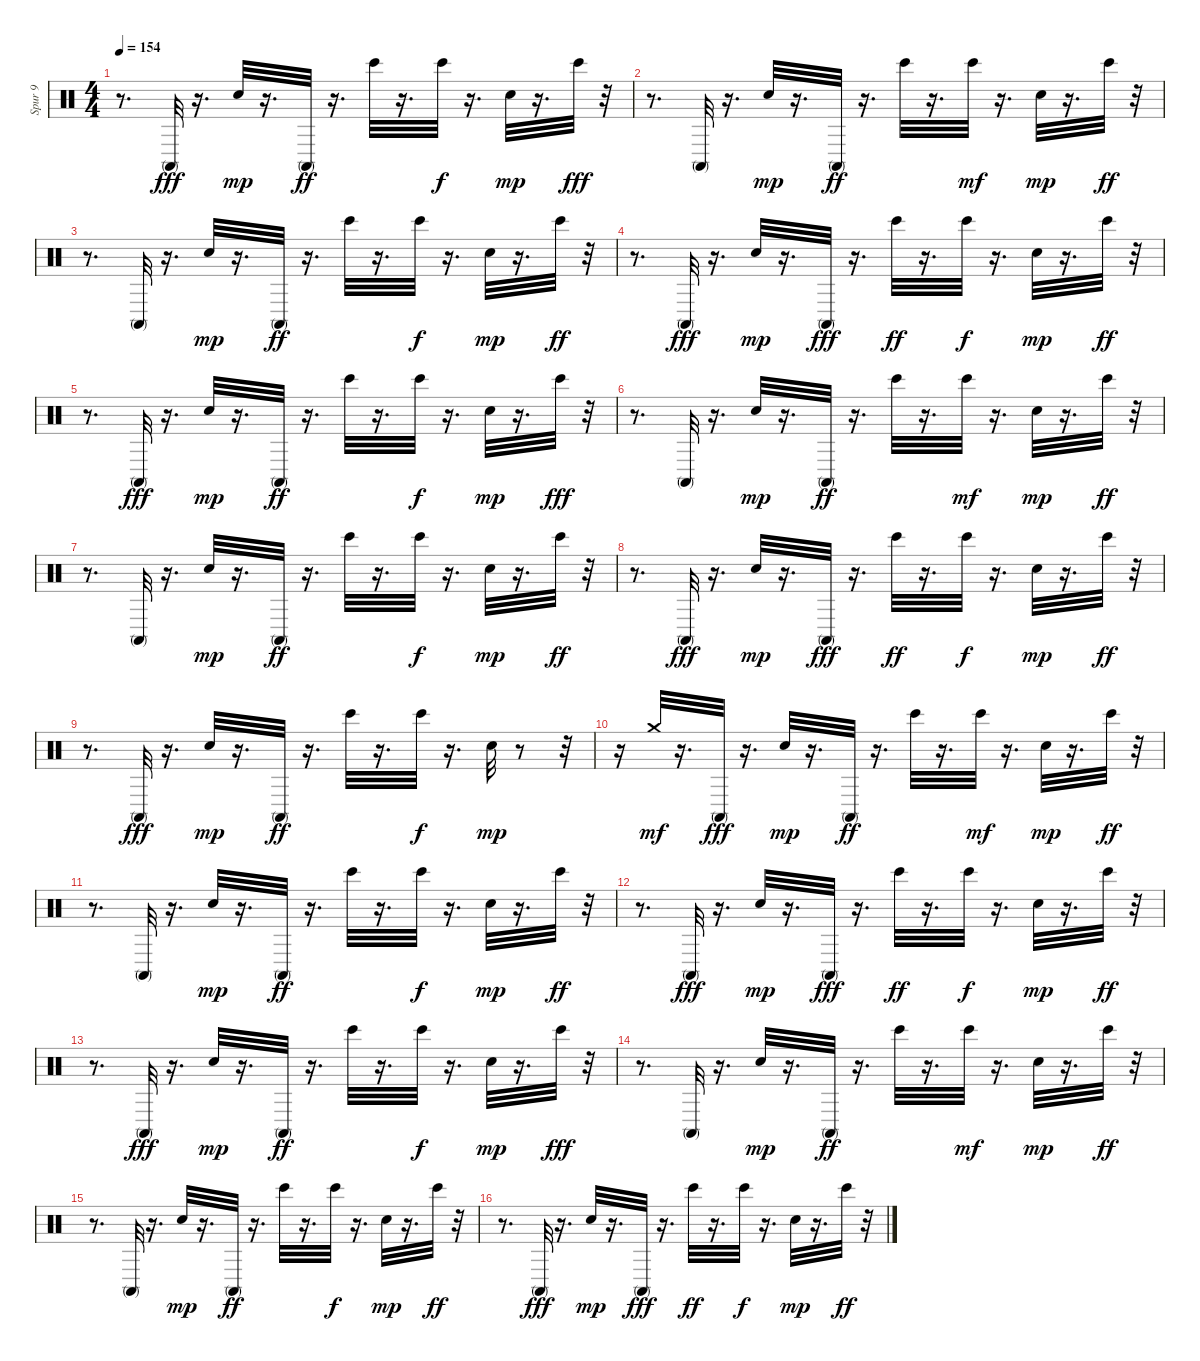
\track ("Spur 9" "Spur 9") {instrument percussion}
\staff {score}
\articulation defaults
\ts (4 4)
\tempo 154
\clef neutral
\ks c
r.8{d dy ff} "Conga high (mute)".32{dy fff} r.16{d} "Hand Clap (hit)".32{dy mp} r.16{d} "Conga high (mute)".32{dy ff} r.16{d} "Bongo High (hit)".32 r.16{d} "Bongo High (hit)".32{dy f} r.16{d} "Hand Clap (hit)".32{dy mp} r.16{d} "Bongo High (hit)".32{dy fff} r.32 |
r.8{d} "Conga high (mute)".32 r.16{d} "Hand Clap (hit)".32{dy mp} r.16{d} "Conga high (mute)".32{dy ff} r.16{d} "Bongo High (hit)".32 r.16{d} "Bongo High (hit)".32{dy mf} r.16{d} "Hand Clap (hit)".32{dy mp} r.16{d} "Bongo High (hit)".32{dy ff} r.32 |
r.8{d} "Conga high (mute)".32 r.16{d} "Hand Clap (hit)".32{dy mp} r.16{d} "Conga high (mute)".32{dy ff} r.16{d} "Bongo High (hit)".32 r.16{d} "Bongo High (hit)".32{dy f} r.16{d} "Hand Clap (hit)".32{dy mp} r.16{d} "Bongo High (hit)".32{dy ff} r.32 |
r.8{d} "Conga high (mute)".32{dy fff} r.16{d} "Hand Clap (hit)".32{dy mp} r.16{d} "Conga high (mute)".32{dy fff} r.16{d} "Bongo High (hit)".32{dy ff} r.16{d} "Bongo High (hit)".32{dy f} r.16{d} "Hand Clap (hit)".32{dy mp} r.16{d} "Bongo High (hit)".32{dy ff} r.32 |
r.8{d} "Conga high (mute)".32{dy fff} r.16{d} "Hand Clap (hit)".32{dy mp} r.16{d} "Conga high (mute)".32{dy ff} r.16{d} "Bongo High (hit)".32 r.16{d} "Bongo High (hit)".32{dy f} r.16{d} "Hand Clap (hit)".32{dy mp} r.16{d} "Bongo High (hit)".32{dy fff} r.32 |
r.8{d} "Conga high (mute)".32 r.16{d} "Hand Clap (hit)".32{dy mp} r.16{d} "Conga high (mute)".32{dy ff} r.16{d} "Bongo High (hit)".32 r.16{d} "Bongo High (hit)".32{dy mf} r.16{d} "Hand Clap (hit)".32{dy mp} r.16{d} "Bongo High (hit)".32{dy ff} r.32 |
r.8{d} "Conga high (mute)".32 r.16{d} "Hand Clap (hit)".32{dy mp} r.16{d} "Conga high (mute)".32{dy ff} r.16{d} "Bongo High (hit)".32 r.16{d} "Bongo High (hit)".32{dy f} r.16{d} "Hand Clap (hit)".32{dy mp} r.16{d} "Bongo High (hit)".32{dy ff} r.32 |
r.8{d} "Conga high (mute)".32{dy fff} r.16{d} "Hand Clap (hit)".32{dy mp} r.16{d} "Conga high (mute)".32{dy fff} r.16{d} "Bongo High (hit)".32{dy ff} r.16{d} "Bongo High (hit)".32{dy f} r.16{d} "Hand Clap (hit)".32{dy mp} r.16{d} "Bongo High (hit)".32{dy ff} r.32 |
r.8{d} "Conga high (mute)".32{dy fff} r.16{d} "Hand Clap (hit)".32{dy mp} r.16{d} "Conga high (mute)".32{dy ff} r.16{d} "Bongo High (hit)".32 r.16{d} "Bongo High (hit)".32{dy f} r.16{d} "Hand Clap (hit)".32{dy mp} r.8 r.32 |
r.16 "Crash medium (hit)".32{dy mf} r.16{d} "Conga high (mute)".32{dy fff} r.16{d} "Hand Clap (hit)".32{dy mp} r.16{d} "Conga high (mute)".32{dy ff} r.16{d} "Bongo High (hit)".32 r.16{d} "Bongo High (hit)".32{dy mf} r.16{d} "Hand Clap (hit)".32{dy mp} r.16{d} "Bongo High (hit)".32{dy ff} r.32 |
r.8{d} "Conga high (mute)".32 r.16{d} "Hand Clap (hit)".32{dy mp} r.16{d} "Conga high (mute)".32{dy ff} r.16{d} "Bongo High (hit)".32 r.16{d} "Bongo High (hit)".32{dy f} r.16{d} "Hand Clap (hit)".32{dy mp} r.16{d} "Bongo High (hit)".32{dy ff} r.32 |
r.8{d} "Conga high (mute)".32{dy fff} r.16{d} "Hand Clap (hit)".32{dy mp} r.16{d} "Conga high (mute)".32{dy fff} r.16{d} "Bongo High (hit)".32{dy ff} r.16{d} "Bongo High (hit)".32{dy f} r.16{d} "Hand Clap (hit)".32{dy mp} r.16{d} "Bongo High (hit)".32{dy ff} r.32 |
r.8{d} "Conga high (mute)".32{dy fff} r.16{d} "Hand Clap (hit)".32{dy mp} r.16{d} "Conga high (mute)".32{dy ff} r.16{d} "Bongo High (hit)".32 r.16{d} "Bongo High (hit)".32{dy f} r.16{d} "Hand Clap (hit)".32{dy mp} r.16{d} "Bongo High (hit)".32{dy fff} r.32 |
r.8{d} "Conga high (mute)".32 r.16{d} "Hand Clap (hit)".32{dy mp} r.16{d} "Conga high (mute)".32{dy ff} r.16{d} "Bongo High (hit)".32 r.16{d} "Bongo High (hit)".32{dy mf} r.16{d} "Hand Clap (hit)".32{dy mp} r.16{d} "Bongo High (hit)".32{dy ff} r.32 |
r.8{d} "Conga high (mute)".32 r.16{d} "Hand Clap (hit)".32{dy mp} r.16{d} "Conga high (mute)".32{dy ff} r.16{d} "Bongo High (hit)".32 r.16{d} "Bongo High (hit)".32{dy f} r.16{d} "Hand Clap (hit)".32{dy mp} r.16{d} "Bongo High (hit)".32{dy ff} r.32 |
r.8{d} "Conga high (mute)".32{dy fff} r.16{d} "Hand Clap (hit)".32{dy mp} r.16{d} "Conga high (mute)".32{dy fff} r.16{d} "Bongo High (hit)".32{dy ff} r.16{d} "Bongo High (hit)".32{dy f} r.16{d} "Hand Clap (hit)".32{dy mp} r.16{d} "Bongo High (hit)".32{dy ff} r.32
